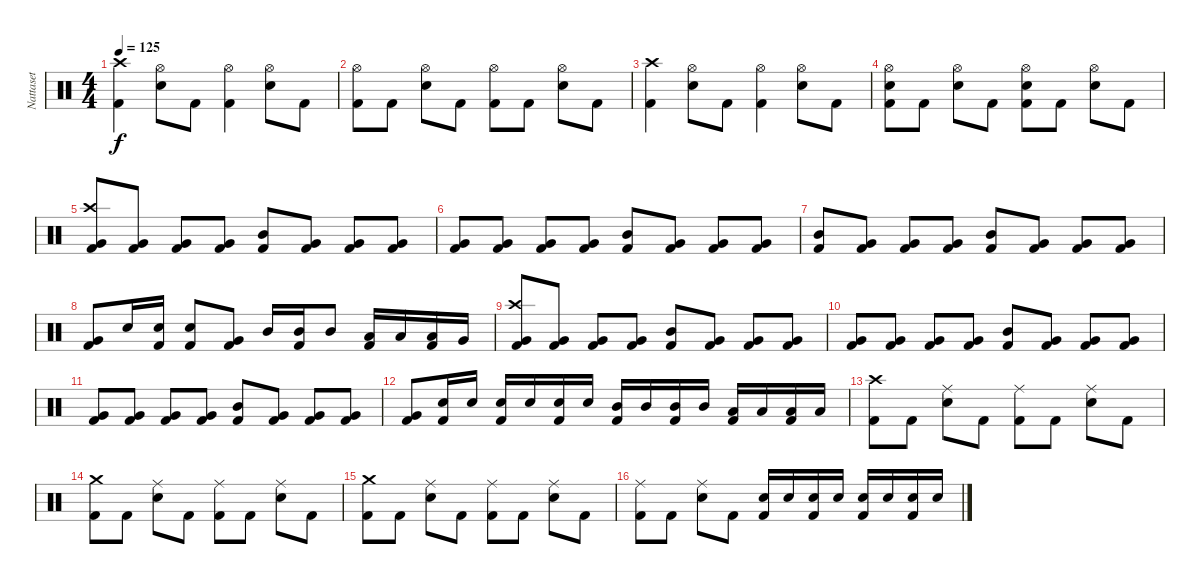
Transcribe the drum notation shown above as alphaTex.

\track ("Nattaset" "Nattaset") {instrument percussion}
\staff {score}
\articulation defaults
\ts (4 4)
\tempo 125
\clef neutral
\ks c
("Kick (hit) 2" "Crash high (hit)").4{dy f} ("Snare (hit) 2" "Hi-Hat (open)").8 "Kick (hit) 2".8 ("Kick (hit) 2" "Hi-Hat (open)").4 ("Snare (hit) 2" "Hi-Hat (open)").8 "Kick (hit) 2".8 |
("Kick (hit) 2" "Hi-Hat (open)").8 "Kick (hit) 2".8 ("Snare (hit) 2" "Hi-Hat (open)").8 "Kick (hit) 2".8 ("Kick (hit) 2" "Hi-Hat (open)").8 "Kick (hit) 2".8 ("Snare (hit) 2" "Hi-Hat (open)").8 "Kick (hit) 2".8 |
("Kick (hit) 2" "Crash high (hit)").4 ("Snare (hit) 2" "Hi-Hat (open)").8 "Kick (hit) 2".8 ("Kick (hit) 2" "Hi-Hat (open)").4 ("Snare (hit) 2" "Hi-Hat (open)").8 "Kick (hit) 2".8 |
("Kick (hit) 2" "Snare (hit) 2" "Hi-Hat (open)").8 "Kick (hit) 2".8 ("Snare (hit) 2" "Hi-Hat (open)").8 "Kick (hit) 2".8 ("Kick (hit) 2" "Snare (hit) 2" "Hi-Hat (open)").8 "Kick (hit) 2".8 ("Snare (hit) 2" "Hi-Hat (open)").8 "Kick (hit) 2".8 |
("Kick (hit) 2" "Very Low Tom (hit)" "Crash high (hit)").8 ("Kick (hit) 2" "Very Low Tom (hit)").8 ("Kick (hit) 2" "Very Low Tom (hit)").8 ("Kick (hit) 2" "Very Low Tom (hit)").8 ("Kick (hit) 2" "Mid Tom (hit)").8 ("Kick (hit) 2" "Very Low Tom (hit)").8 ("Kick (hit) 2" "Very Low Tom (hit)").8 ("Kick (hit) 2" "Very Low Tom (hit)").8 |
("Kick (hit) 2" "Very Low Tom (hit)").8 ("Kick (hit) 2" "Very Low Tom (hit)").8 ("Kick (hit) 2" "Very Low Tom (hit)").8 ("Kick (hit) 2" "Very Low Tom (hit)").8 ("Kick (hit) 2" "Mid Tom (hit)").8 ("Kick (hit) 2" "Very Low Tom (hit)").8 ("Kick (hit) 2" "Very Low Tom (hit)").8 ("Kick (hit) 2" "Very Low Tom (hit)").8 |
("Kick (hit) 2" "Mid Tom (hit)").8 ("Kick (hit) 2" "Very Low Tom (hit)").8 ("Kick (hit) 2" "Very Low Tom (hit)").8 ("Kick (hit) 2" "Very Low Tom (hit)").8 ("Kick (hit) 2" "Mid Tom (hit)").8 ("Kick (hit) 2" "Very Low Tom (hit)").8 ("Kick (hit) 2" "Very Low Tom (hit)").8 ("Kick (hit) 2" "Very Low Tom (hit)").8 |
("Kick (hit) 2" "Very Low Tom (hit)").8 "Snare (hit) 2".16 ("Kick (hit) 2" "Snare (hit) 2").16 ("Kick (hit) 2" "Snare (hit) 2").8 ("Kick (hit) 2" "Very Low Tom (hit)").8 "Mid Tom (hit)".16 ("Kick (hit) 2" "Mid Tom (hit)").16 "Mid Tom (hit)".8 ("Kick (hit) 2" "Low Tom (hit)").16 "Low Tom (hit)".16 ("Kick (hit) 2" "Low Tom (hit)").16 "Very Low Tom (hit)".16 |
("Kick (hit) 2" "Very Low Tom (hit)" "Crash high (hit)").8 ("Kick (hit) 2" "Very Low Tom (hit)").8 ("Kick (hit) 2" "Very Low Tom (hit)").8 ("Kick (hit) 2" "Very Low Tom (hit)").8 ("Kick (hit) 2" "Mid Tom (hit)").8 ("Kick (hit) 2" "Very Low Tom (hit)").8 ("Kick (hit) 2" "Very Low Tom (hit)").8 ("Kick (hit) 2" "Very Low Tom (hit)").8 |
("Kick (hit) 2" "Very Low Tom (hit)").8 ("Kick (hit) 2" "Very Low Tom (hit)").8 ("Kick (hit) 2" "Very Low Tom (hit)").8 ("Kick (hit) 2" "Very Low Tom (hit)").8 ("Kick (hit) 2" "Mid Tom (hit)").8 ("Kick (hit) 2" "Very Low Tom (hit)").8 ("Kick (hit) 2" "Very Low Tom (hit)").8 ("Kick (hit) 2" "Very Low Tom (hit)").8 |
("Kick (hit) 2" "Very Low Tom (hit)").8 ("Kick (hit) 2" "Very Low Tom (hit)").8 ("Kick (hit) 2" "Very Low Tom (hit)").8 ("Kick (hit) 2" "Very Low Tom (hit)").8 ("Kick (hit) 2" "Mid Tom (hit)").8 ("Kick (hit) 2" "Very Low Tom (hit)").8 ("Kick (hit) 2" "Very Low Tom (hit)").8 ("Kick (hit) 2" "Very Low Tom (hit)").8 |
("Kick (hit) 2" "Very Low Tom (hit)").8 ("Kick (hit) 2" "Snare (hit) 2").16 "Snare (hit) 2".16 ("Kick (hit) 2" "Snare (hit) 2").16 "Snare (hit) 2".16 ("Kick (hit) 2" "Snare (hit) 2").16 "Snare (hit) 2".16 ("Kick (hit) 2" "Mid Tom (hit)").16 "Mid Tom (hit)".16 ("Kick (hit) 2" "Mid Tom (hit)").16 "Mid Tom (hit)".16 ("Kick (hit) 2" "Low Tom (hit)").16 "Low Tom (hit)".16 ("Kick (hit) 2" "Low Tom (hit)").16 "Low Tom (hit)".16 |
("Kick (hit) 2" "Crash high (hit)").8 "Kick (hit) 2".8 ("Snare (hit) 2" "Ride (middle)").8 "Kick (hit) 2".8 ("Kick (hit) 2" "Ride (middle)").8 "Kick (hit) 2".8 ("Snare (hit) 2" "Ride (middle)").8 "Kick (hit) 2".8 |
("Kick (hit) 2" "Crash medium (hit)").8 "Kick (hit) 2".8 ("Snare (hit) 2" "Ride (middle)").8 "Kick (hit) 2".8 ("Kick (hit) 2" "Ride (middle)").8 "Kick (hit) 2".8 ("Snare (hit) 2" "Ride (middle)").8 "Kick (hit) 2".8 |
("Kick (hit) 2" "Crash medium (hit)").8 "Kick (hit) 2".8 ("Snare (hit) 2" "Ride (middle)").8 "Kick (hit) 2".8 ("Kick (hit) 2" "Ride (middle)").8 "Kick (hit) 2".8 ("Snare (hit) 2" "Ride (middle)").8 "Kick (hit) 2".8 |
("Kick (hit) 2" "Ride (middle)").8 "Kick (hit) 2".8 ("Snare (hit) 2" "Ride (middle)").8 "Kick (hit) 2".8 ("Kick (hit) 2" "Snare (hit) 2").16 "Snare (hit) 2".16 ("Kick (hit) 2" "Snare (hit) 2").16 "Snare (hit) 2".16 ("Kick (hit) 2" "Snare (hit) 2").16 "Snare (hit) 2".16 ("Kick (hit) 2" "Snare (hit) 2").16 "Snare (hit) 2".16
